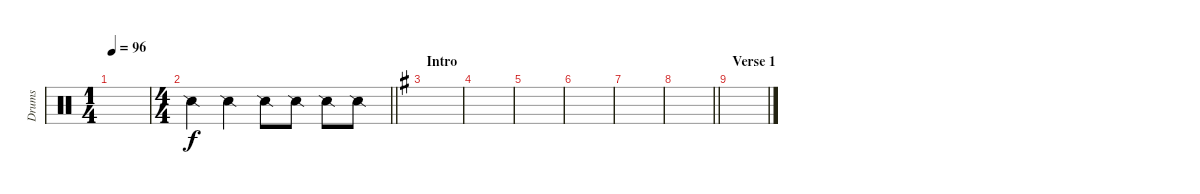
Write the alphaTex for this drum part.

\track ("Drums" "Drums") {instrument percussion}
\staff {score}
\articulation defaults
\ts (1 4)
\tempo 96
\clef neutral
\ks c
|
\ts (4 4)
\barLineRight lightlight "Snare (side stick) 2".4 "Snare (side stick) 2".4 "Snare (side stick) 2".8 "Snare (side stick) 2".8 "Snare (side stick) 2".8 "Snare (side stick) 2".8
|
\section ("" "Intro")
\ks g
|
|
|
|
|
\barLineRight lightlight
|
\section ("" "Verse 1")
